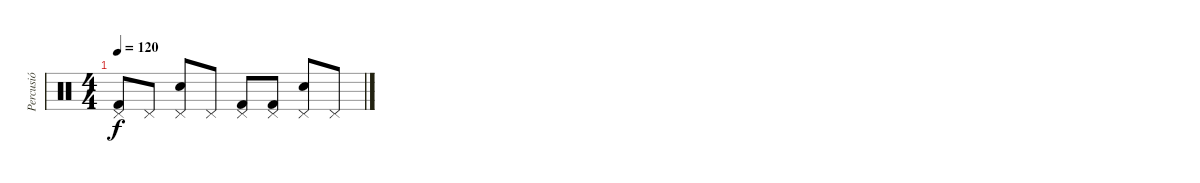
\track ("Percusió" "Percusió") {instrument percussion}
\staff {score}
\articulation defaults
\ts (4 4)
\tempo 120
\clef neutral
\ks c
("Pedal Hi-Hat (hit)" "Kick (hit) 2").8{dy f volume 5} "Pedal Hi-Hat (hit)".8 ("Pedal Hi-Hat (hit)" "Snare (hit) 2").8 "Pedal Hi-Hat (hit)".8 ("Pedal Hi-Hat (hit)" "Kick (hit) 2").8 ("Pedal Hi-Hat (hit)" "Kick (hit) 2").8 ("Pedal Hi-Hat (hit)" "Snare (hit) 2").8 "Pedal Hi-Hat (hit)".8
